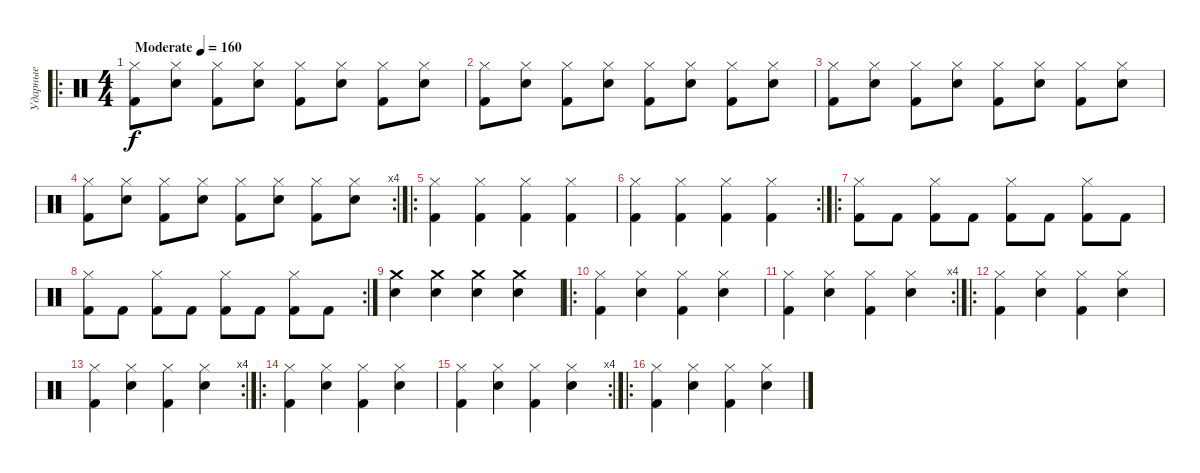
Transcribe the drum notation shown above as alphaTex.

\track ("Ударные" "Ударные") {instrument percussion}
\staff {score}
\articulation defaults
\ro
\ts (4 4)
\tempo (160 "Moderate")
\clef neutral
\ks c
("Hi-Hat (closed)" "Kick (hit) 2").8{dy f} ("Hi-Hat (closed)" "Electric Snare (hit)").8 ("Hi-Hat (closed)" "Kick (hit) 2").8 ("Hi-Hat (closed)" "Electric Snare (hit)").8 ("Hi-Hat (closed)" "Kick (hit) 2").8 ("Hi-Hat (closed)" "Electric Snare (hit)").8 ("Hi-Hat (closed)" "Kick (hit) 2").8 ("Hi-Hat (closed)" "Electric Snare (hit)").8 |
("Hi-Hat (closed)" "Kick (hit) 2").8 ("Hi-Hat (closed)" "Electric Snare (hit)").8 ("Hi-Hat (closed)" "Kick (hit) 2").8 ("Hi-Hat (closed)" "Electric Snare (hit)").8 ("Hi-Hat (closed)" "Kick (hit) 2").8 ("Hi-Hat (closed)" "Electric Snare (hit)").8 ("Hi-Hat (closed)" "Kick (hit) 2").8 ("Hi-Hat (closed)" "Electric Snare (hit)").8 |
("Hi-Hat (closed)" "Kick (hit) 2").8 ("Hi-Hat (closed)" "Electric Snare (hit)").8 ("Hi-Hat (closed)" "Kick (hit) 2").8 ("Hi-Hat (closed)" "Electric Snare (hit)").8 ("Hi-Hat (closed)" "Kick (hit) 2").8 ("Hi-Hat (closed)" "Electric Snare (hit)").8 ("Hi-Hat (closed)" "Kick (hit) 2").8 ("Hi-Hat (closed)" "Electric Snare (hit)").8 |
\rc 4
("Hi-Hat (closed)" "Kick (hit) 2").8 ("Hi-Hat (closed)" "Electric Snare (hit)").8 ("Hi-Hat (closed)" "Kick (hit) 2").8 ("Hi-Hat (closed)" "Electric Snare (hit)").8 ("Hi-Hat (closed)" "Kick (hit) 2").8 ("Hi-Hat (closed)" "Electric Snare (hit)").8 ("Hi-Hat (closed)" "Kick (hit) 2").8 ("Hi-Hat (closed)" "Electric Snare (hit)").8 |
\ro
("Hi-Hat (closed)" "Kick (hit) 2").4 ("Hi-Hat (closed)" "Kick (hit) 2").4 ("Hi-Hat (closed)" "Kick (hit) 2").4 ("Hi-Hat (closed)" "Kick (hit) 2").4 |
\rc 2
("Hi-Hat (closed)" "Kick (hit) 2").4 ("Hi-Hat (closed)" "Kick (hit) 2").4 ("Hi-Hat (closed)" "Kick (hit) 2").4 ("Hi-Hat (closed)" "Kick (hit) 2").4 |
\ro
("Hi-Hat (closed)" "Kick (hit) 2").8 "Kick (hit) 2".8 ("Hi-Hat (closed)" "Kick (hit) 2").8 "Kick (hit) 2".8 ("Hi-Hat (closed)" "Kick (hit) 2").8 "Kick (hit) 2".8 ("Hi-Hat (closed)" "Kick (hit) 2").8 "Kick (hit) 2".8 |
\rc 2
("Hi-Hat (closed)" "Kick (hit) 2").8 "Kick (hit) 2".8 ("Hi-Hat (closed)" "Kick (hit) 2").8 "Kick (hit) 2".8 ("Hi-Hat (closed)" "Kick (hit) 2").8 "Kick (hit) 2".8 ("Hi-Hat (closed)" "Kick (hit) 2").8 "Kick (hit) 2".8 |
("Crash medium (hit)" "Electric Snare (hit)").4 ("Crash medium (hit)" "Electric Snare (hit)").4 ("Crash medium (hit)" "Electric Snare (hit)").4 ("Crash medium (hit)" "Electric Snare (hit)").4 |
\ro
("Hi-Hat (closed)" "Kick (hit) 2").4 ("Hi-Hat (closed)" "Electric Snare (hit)").4 ("Hi-Hat (closed)" "Kick (hit) 2").4 ("Hi-Hat (closed)" "Electric Snare (hit)").4 |
\rc 4
("Hi-Hat (closed)" "Kick (hit) 2").4 ("Hi-Hat (closed)" "Electric Snare (hit)").4 ("Hi-Hat (closed)" "Kick (hit) 2").4 ("Hi-Hat (closed)" "Electric Snare (hit)").4 |
\ro
("Hi-Hat (closed)" "Kick (hit) 2").4 ("Hi-Hat (closed)" "Electric Snare (hit)").4 ("Hi-Hat (closed)" "Kick (hit) 2").4 ("Hi-Hat (closed)" "Electric Snare (hit)").4 |
\rc 4
("Hi-Hat (closed)" "Kick (hit) 2").4 ("Hi-Hat (closed)" "Electric Snare (hit)").4 ("Hi-Hat (closed)" "Kick (hit) 2").4 ("Hi-Hat (closed)" "Electric Snare (hit)").4 |
\ro
("Hi-Hat (closed)" "Kick (hit) 2").4 ("Hi-Hat (closed)" "Electric Snare (hit)").4 ("Hi-Hat (closed)" "Kick (hit) 2").4 ("Hi-Hat (closed)" "Electric Snare (hit)").4 |
\rc 4
("Hi-Hat (closed)" "Kick (hit) 2").4 ("Hi-Hat (closed)" "Electric Snare (hit)").4 ("Hi-Hat (closed)" "Kick (hit) 2").4 ("Hi-Hat (closed)" "Electric Snare (hit)").4 |
\ro
("Hi-Hat (closed)" "Kick (hit) 2").4 ("Hi-Hat (closed)" "Electric Snare (hit)").4 ("Hi-Hat (closed)" "Kick (hit) 2").4 ("Hi-Hat (closed)" "Electric Snare (hit)").4
